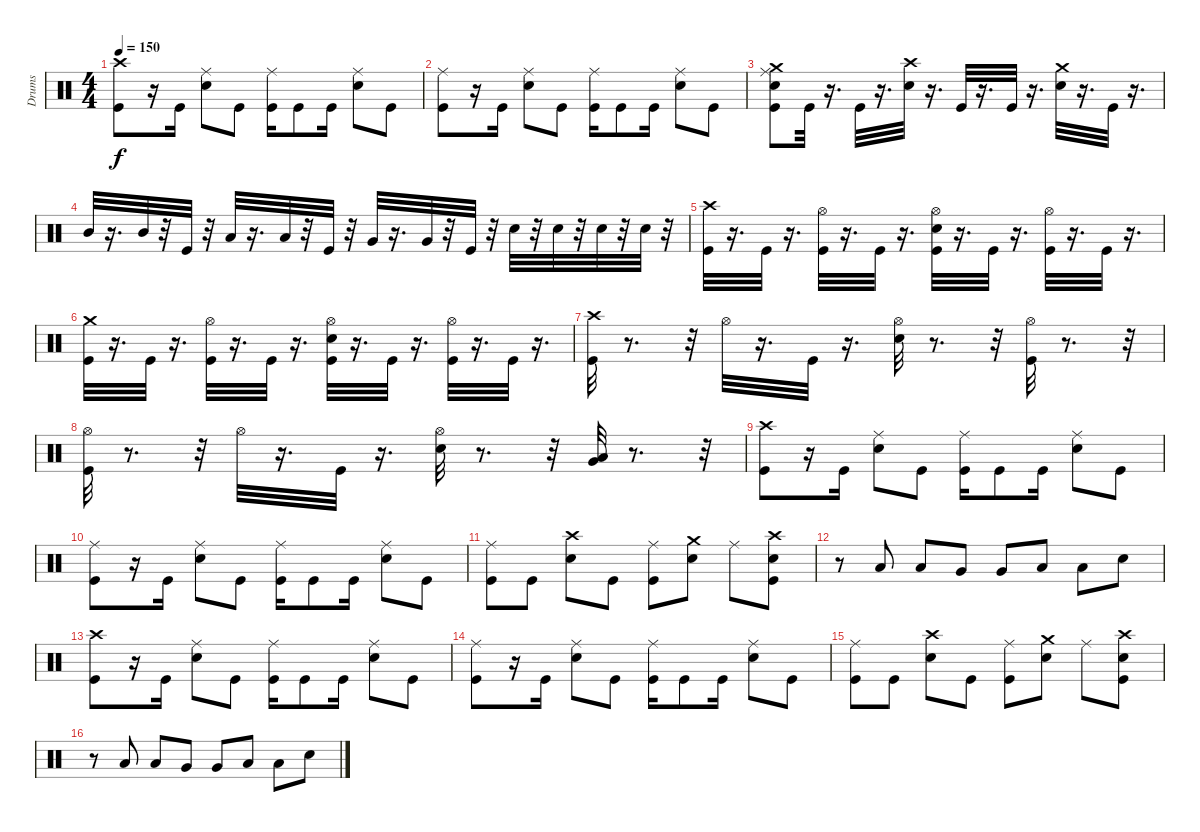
\track ("Drums" "Drums") {instrument percussion}
\staff {score}
\articulation defaults
\ts (4 4)
\tempo 150
\clef neutral
\ks c
("Crash high (hit)" "Kick (hit)").8{dy f} r.16 "Kick (hit)".16 ("Ride (middle)" "Electric Snare (hit)").8 "Kick (hit)".8 ("Ride (middle)" "Kick (hit)").16 "Kick (hit)".8 "Kick (hit)".16 ("Ride (middle)" "Electric Snare (hit)").8 "Kick (hit)".8 |
("Kick (hit)" "Ride (middle)").8 r.16 "Kick (hit)".16 ("Ride (middle)" "Electric Snare (hit)").8 "Kick (hit)".8 ("Ride (middle)" "Kick (hit)").16 "Kick (hit)".8 "Kick (hit)".16 ("Ride (middle)" "Electric Snare (hit)").8 "Kick (hit)".8 |
("Crash medium (hit)" "Electric Snare (hit)" "Ride (middle)" "Kick (hit)").8 "Kick (hit)".32 r.16{d} "Kick (hit)".32 r.16{d} ("Crash high (hit)" "Electric Snare (hit)").32 r.16{d} "Kick (hit)".32 r.16{d} "Kick (hit)".32 r.16{d} ("Crash medium (hit)" "Electric Snare (hit)").32 r.16{d} "Kick (hit)".32 r.16{d} |
"Mid Tom (hit)".32 r.16{d} "Mid Tom (hit)".32 r.32 "Kick (hit)".32 r.32 "Low Tom (hit)".32 r.16{d} "Low Tom (hit)".32 r.32 "Kick (hit)".32 r.32 "Very Low Tom (hit)".32 r.16{d} "Very Low Tom (hit)".32 r.32 "Kick (hit)".32 r.32 "Electric Snare (hit)".32 r.32 "Electric Snare (hit)".32 r.32 "Electric Snare (hit)".32 r.32 "Electric Snare (hit)".32 r.32 |
("Crash high (hit)" "Kick (hit)").32 r.16{d} "Kick (hit)".32 r.16{d} ("Hi-Hat (open)" "Kick (hit)").32 r.16{d} "Kick (hit)".32 r.16{d} ("Kick (hit)" "Hi-Hat (open)" "Electric Snare (hit)").32 r.16{d} "Kick (hit)".32 r.16{d} ("Hi-Hat (open)" "Kick (hit)").32 r.16{d} "Kick (hit)".32 r.16{d} |
("Crash medium (hit)" "Kick (hit)").32 r.16{d} "Kick (hit)".32 r.16{d} ("Hi-Hat (open)" "Kick (hit)").32 r.16{d} "Kick (hit)".32 r.16{d} ("Hi-Hat (open)" "Kick (hit)" "Electric Snare (hit)").32 r.16{d} "Kick (hit)".32 r.16{d} ("Kick (hit)" "Hi-Hat (open)").32 r.16{d} "Kick (hit)".32 r.16{d} |
("Crash high (hit)" "Kick (hit)").32 r.8{d} r.32 "Hi-Hat (open)".32 r.16{d} "Kick (hit)".32 r.16{d} ("Hi-Hat (open)" "Electric Snare (hit)").32 r.8{d} r.32 ("Hi-Hat (open)" "Kick (hit)").32 r.8{d} r.32 |
("Hi-Hat (open)" "Kick (hit)").32 r.8{d} r.32 "Hi-Hat (open)".32 r.16{d} "Kick (hit)".32 r.16{d} ("Hi-Hat (open)" "Electric Snare (hit)").32 r.8{d} r.32 ("Very Low Tom (hit)" "Low Tom (hit)").32 r.8{d} r.32 |
("Crash high (hit)" "Kick (hit)").8 r.16 "Kick (hit)".16 ("Ride (middle)" "Electric Snare (hit)").8 "Kick (hit)".8 ("Ride (middle)" "Kick (hit)").16 "Kick (hit)".8 "Kick (hit)".16 ("Ride (middle)" "Electric Snare (hit)").8 "Kick (hit)".8 |
("Kick (hit)" "Ride (middle)").8 r.16 "Kick (hit)".16 ("Ride (middle)" "Electric Snare (hit)").8 "Kick (hit)".8 ("Ride (middle)" "Kick (hit)").16 "Kick (hit)".8 "Kick (hit)".16 ("Ride (middle)" "Electric Snare (hit)").8 "Kick (hit)".8 |
("Ride (middle)" "Kick (hit)").8 "Kick (hit)".8 ("Crash high (hit)" "Electric Snare (hit)").8 "Kick (hit)".8 ("Ride (middle)" "Kick (hit)").8 ("Electric Snare (hit)" "Crash medium (hit)").8 "Ride (middle)".8 ("Crash high (hit)" "Electric Snare (hit)" "Kick (hit)").8 |
r.8 "Low Tom (hit)".8 "Low Tom (hit)".8 "Very Low Tom (hit)".8 "Very Low Tom (hit)".8 "Low Floor Tom (hit)".8 "Low Floor Tom (hit)".8 "Electric Snare (hit)".8 |
("Crash high (hit)" "Kick (hit)").8 r.16 "Kick (hit)".16 ("Ride (middle)" "Electric Snare (hit)").8 "Kick (hit)".8 ("Ride (middle)" "Kick (hit)").16 "Kick (hit)".8 "Kick (hit)".16 ("Ride (middle)" "Electric Snare (hit)").8 "Kick (hit)".8 |
("Kick (hit)" "Ride (middle)").8 r.16 "Kick (hit)".16 ("Ride (middle)" "Electric Snare (hit)").8 "Kick (hit)".8 ("Ride (middle)" "Kick (hit)").16 "Kick (hit)".8 "Kick (hit)".16 ("Ride (middle)" "Electric Snare (hit)").8 "Kick (hit)".8 |
("Ride (middle)" "Kick (hit)").8 "Kick (hit)".8 ("Crash high (hit)" "Electric Snare (hit)").8 "Kick (hit)".8 ("Ride (middle)" "Kick (hit)").8 ("Electric Snare (hit)" "Crash medium (hit)").8 "Ride (middle)".8 ("Crash high (hit)" "Electric Snare (hit)" "Kick (hit)").8 |
r.8 "Low Tom (hit)".8 "Low Tom (hit)".8 "Very Low Tom (hit)".8 "Very Low Tom (hit)".8 "Low Floor Tom (hit)".8 "Low Floor Tom (hit)".8 "Electric Snare (hit)".8
